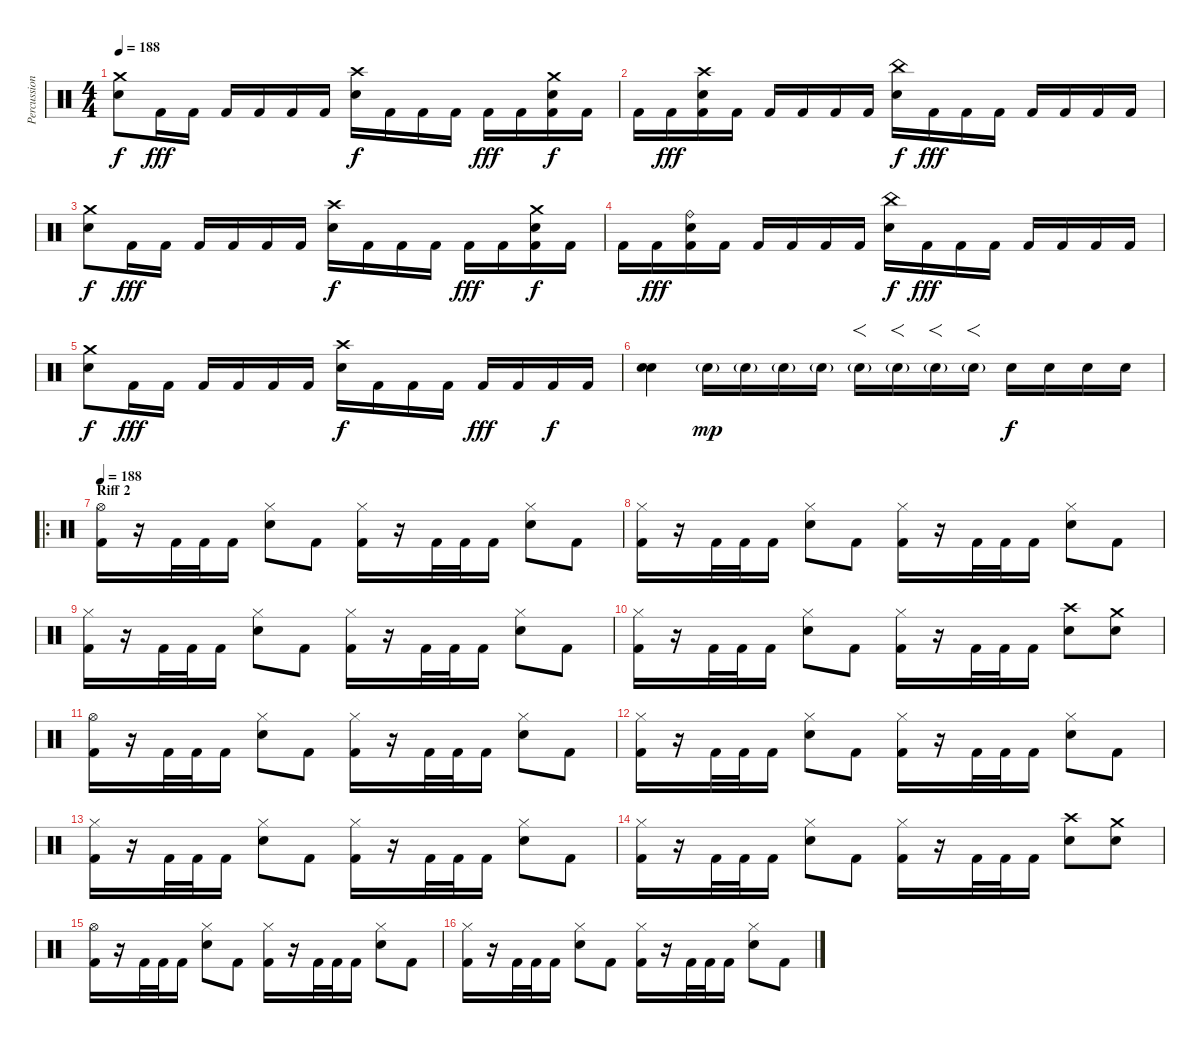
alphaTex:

\track ("Percussion" "Percussion") {instrument percussion}
\staff {score}
\articulation defaults
\ts (4 4)
\tempo 188
\clef neutral
\ks c
("Crash medium (hit)" "Electric Snare (hit)").8{dy f} "Kick (hit) 2".16{dy fff} "Kick (hit) 2".16 "Kick (hit) 2".16 "Kick (hit) 2".16 "Kick (hit) 2".16 "Kick (hit) 2".16 ("Crash high (hit)" "Electric Snare (hit)").16{dy f} "Kick (hit) 2".16 "Kick (hit) 2".16 "Kick (hit) 2".16 "Kick (hit) 2".16{dy fff} "Kick (hit) 2".16 ("Crash medium (hit)" "Electric Snare (hit)" "Kick (hit) 2").16{dy f} "Kick (hit) 2".16 |
"Kick (hit) 2".16 "Kick (hit) 2".16{dy fff} ("Crash high (hit)" "Electric Snare (hit)" "Kick (hit) 2").16 "Kick (hit) 2".16 "Kick (hit) 2".16 "Kick (hit) 2".16 "Kick (hit) 2".16 "Kick (hit) 2".16 ("China (hit)" "Electric Snare (hit)").16{dy f} "Kick (hit) 2".16{dy fff} "Kick (hit) 2".16 "Kick (hit) 2".16 "Kick (hit) 2".16 "Kick (hit) 2".16 "Kick (hit) 2".16 "Kick (hit) 2".16 |
("Crash medium (hit)" "Electric Snare (hit)").8{dy f} "Kick (hit) 2".16{dy fff} "Kick (hit) 2".16 "Kick (hit) 2".16 "Kick (hit) 2".16 "Kick (hit) 2".16 "Kick (hit) 2".16 ("Crash high (hit)" "Electric Snare (hit)").16{dy f} "Kick (hit) 2".16 "Kick (hit) 2".16 "Kick (hit) 2".16 "Kick (hit) 2".16{dy fff} "Kick (hit) 2".16 ("Crash medium (hit)" "Electric Snare (hit)" "Kick (hit) 2").16{dy f} "Kick (hit) 2".16 |
"Kick (hit) 2".16 "Kick (hit) 2".16{dy fff} ("Ride (bell)" "Electric Snare (hit)" "Kick (hit) 2").16 "Kick (hit) 2".16 "Kick (hit) 2".16 "Kick (hit) 2".16 "Kick (hit) 2".16 "Kick (hit) 2".16 ("China (hit)" "Electric Snare (hit)").16{dy f} "Kick (hit) 2".16{dy fff} "Kick (hit) 2".16 "Kick (hit) 2".16 "Kick (hit) 2".16 "Kick (hit) 2".16 "Kick (hit) 2".16 "Kick (hit) 2".16 |
("Crash medium (hit)" "Electric Snare (hit)").8{dy f} "Kick (hit) 2".16{dy fff} "Kick (hit) 2".16 "Kick (hit) 2".16 "Kick (hit) 2".16 "Kick (hit) 2".16 "Kick (hit) 2".16 ("Crash high (hit)" "Electric Snare (hit)").16{dy f} "Kick (hit) 2".16 "Kick (hit) 2".16 "Kick (hit) 2".16 "Kick (hit) 2".16{dy fff} "Kick (hit) 2".16 "Kick (hit) 2".16{dy f} "Kick (hit) 2".16 |
("Electric Snare (hit)" "Snare (hit) 2").4 "Electric Snare (hit)"{g}.16{dy mp} "Electric Snare (hit)"{g}.16 "Electric Snare (hit)"{g}.16 "Electric Snare (hit)"{g}.16 "Electric Snare (hit)"{g}.16{f} "Electric Snare (hit)"{g}.16{f} "Electric Snare (hit)"{g}.16{f} "Electric Snare (hit)"{g}.16{f} "Electric Snare (hit)".16{dy f} "Electric Snare (hit)".16 "Electric Snare (hit)".16 "Electric Snare (hit)".16 |
\ro
\section ("" "Riff 2")
\tempo 188
("Hi-Hat (open)" "Kick (hit) 2").16 r.16 "Kick (hit) 2".32 "Kick (hit) 2".32 "Kick (hit) 2".16 ("Hi-Hat (closed)" "Electric Snare (hit)").8 "Kick (hit) 2".8 ("Hi-Hat (closed)" "Kick (hit) 2").16 r.16 "Kick (hit) 2".32 "Kick (hit) 2".32 "Kick (hit) 2".16 ("Hi-Hat (closed)" "Electric Snare (hit)").8 "Kick (hit) 2".8 |
("Hi-Hat (closed)" "Kick (hit) 2").16 r.16 "Kick (hit) 2".32 "Kick (hit) 2".32 "Kick (hit) 2".16 ("Hi-Hat (closed)" "Electric Snare (hit)").8 "Kick (hit) 2".8 ("Hi-Hat (closed)" "Kick (hit) 2").16 r.16 "Kick (hit) 2".32 "Kick (hit) 2".32 "Kick (hit) 2".16 ("Hi-Hat (closed)" "Electric Snare (hit)").8 "Kick (hit) 2".8 |
("Hi-Hat (closed)" "Kick (hit) 2").16 r.16 "Kick (hit) 2".32 "Kick (hit) 2".32 "Kick (hit) 2".16 ("Hi-Hat (closed)" "Electric Snare (hit)").8 "Kick (hit) 2".8 ("Hi-Hat (closed)" "Kick (hit) 2").16 r.16 "Kick (hit) 2".32 "Kick (hit) 2".32 "Kick (hit) 2".16 ("Hi-Hat (closed)" "Electric Snare (hit)").8 "Kick (hit) 2".8 |
("Hi-Hat (closed)" "Kick (hit) 2").16 r.16 "Kick (hit) 2".32 "Kick (hit) 2".32 "Kick (hit) 2".16 ("Hi-Hat (closed)" "Electric Snare (hit)").8 "Kick (hit) 2".8 ("Hi-Hat (closed)" "Kick (hit) 2").16 r.16 "Kick (hit) 2".32 "Kick (hit) 2".32 "Kick (hit) 2".16 ("Crash high (hit)" "Electric Snare (hit)").8 ("Crash medium (hit)" "Electric Snare (hit)").8 |
("Hi-Hat (open)" "Kick (hit) 2").16 r.16 "Kick (hit) 2".32 "Kick (hit) 2".32 "Kick (hit) 2".16 ("Hi-Hat (closed)" "Electric Snare (hit)").8 "Kick (hit) 2".8 ("Hi-Hat (closed)" "Kick (hit) 2").16 r.16 "Kick (hit) 2".32 "Kick (hit) 2".32 "Kick (hit) 2".16 ("Hi-Hat (closed)" "Electric Snare (hit)").8 "Kick (hit) 2".8 |
("Hi-Hat (closed)" "Kick (hit) 2").16 r.16 "Kick (hit) 2".32 "Kick (hit) 2".32 "Kick (hit) 2".16 ("Hi-Hat (closed)" "Electric Snare (hit)").8 "Kick (hit) 2".8 ("Hi-Hat (closed)" "Kick (hit) 2").16 r.16 "Kick (hit) 2".32 "Kick (hit) 2".32 "Kick (hit) 2".16 ("Hi-Hat (closed)" "Electric Snare (hit)").8 "Kick (hit) 2".8 |
("Hi-Hat (closed)" "Kick (hit) 2").16 r.16 "Kick (hit) 2".32 "Kick (hit) 2".32 "Kick (hit) 2".16 ("Hi-Hat (closed)" "Electric Snare (hit)").8 "Kick (hit) 2".8 ("Hi-Hat (closed)" "Kick (hit) 2").16 r.16 "Kick (hit) 2".32 "Kick (hit) 2".32 "Kick (hit) 2".16 ("Hi-Hat (closed)" "Electric Snare (hit)").8 "Kick (hit) 2".8 |
("Hi-Hat (closed)" "Kick (hit) 2").16 r.16 "Kick (hit) 2".32 "Kick (hit) 2".32 "Kick (hit) 2".16 ("Hi-Hat (closed)" "Electric Snare (hit)").8 "Kick (hit) 2".8 ("Hi-Hat (closed)" "Kick (hit) 2").16 r.16 "Kick (hit) 2".32 "Kick (hit) 2".32 "Kick (hit) 2".16 ("Crash high (hit)" "Electric Snare (hit)").8 ("Crash medium (hit)" "Electric Snare (hit)").8 |
("Hi-Hat (open)" "Kick (hit) 2").16 r.16 "Kick (hit) 2".32 "Kick (hit) 2".32 "Kick (hit) 2".16 ("Hi-Hat (closed)" "Electric Snare (hit)").8 "Kick (hit) 2".8 ("Hi-Hat (closed)" "Kick (hit) 2").16 r.16 "Kick (hit) 2".32 "Kick (hit) 2".32 "Kick (hit) 2".16 ("Hi-Hat (closed)" "Electric Snare (hit)").8 "Kick (hit) 2".8 |
("Hi-Hat (closed)" "Kick (hit) 2").16 r.16 "Kick (hit) 2".32 "Kick (hit) 2".32 "Kick (hit) 2".16 ("Hi-Hat (closed)" "Electric Snare (hit)").8 "Kick (hit) 2".8 ("Hi-Hat (closed)" "Kick (hit) 2").16 r.16 "Kick (hit) 2".32 "Kick (hit) 2".32 "Kick (hit) 2".16 ("Hi-Hat (closed)" "Electric Snare (hit)").8 "Kick (hit) 2".8
